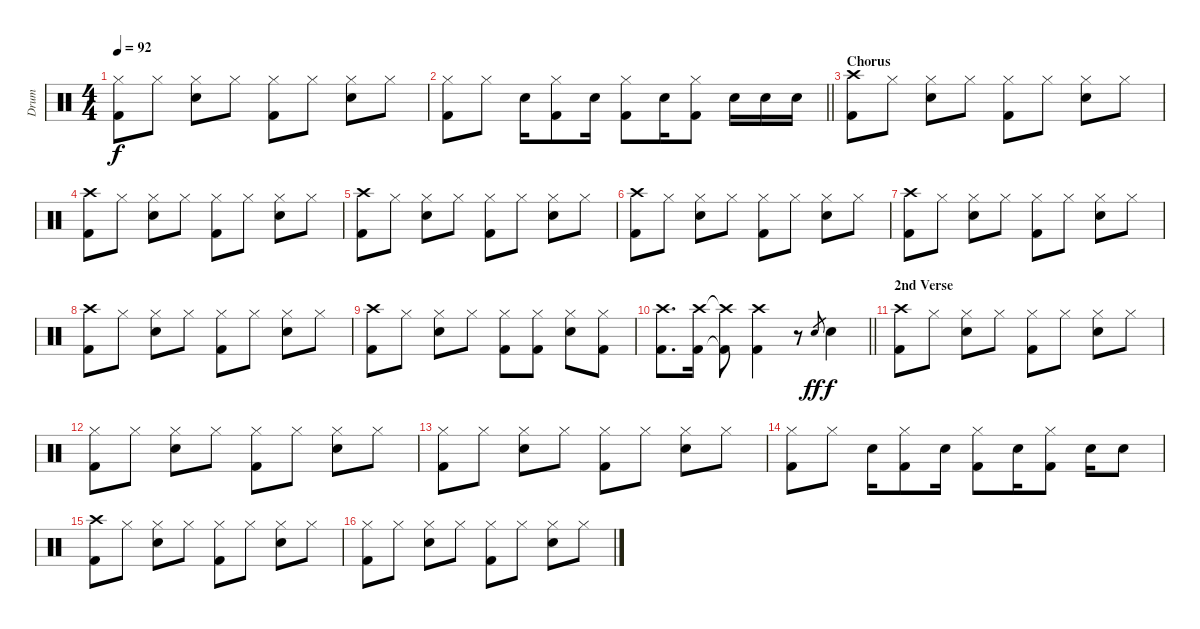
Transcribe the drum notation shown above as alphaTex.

\track ("Drum" "Drum") {instrument percussion}
\staff {score}
\articulation defaults
\ts (4 4)
\tempo 92
\clef neutral
\ks c
("Hi-Hat (closed)" "Kick (hit) 2").8{dy f} "Hi-Hat (closed)".8 ("Hi-Hat (closed)" "Snare (hit) 2").8 "Hi-Hat (closed)".8 ("Hi-Hat (closed)" "Kick (hit) 2").8 "Hi-Hat (closed)".8 ("Hi-Hat (closed)" "Snare (hit) 2").8 "Hi-Hat (closed)".8 |
\barLineRight lightlight
("Hi-Hat (closed)" "Kick (hit) 2").8 "Hi-Hat (closed)".8 "Snare (hit) 2".16 ("Hi-Hat (closed)" "Kick (hit) 2").8 "Snare (hit) 2".16 ("Hi-Hat (closed)" "Kick (hit) 2").8 "Snare (hit) 2".16 ("Hi-Hat (closed)" "Kick (hit) 2").8 "Snare (hit) 2".16 "Snare (hit) 2".16 "Snare (hit) 2".16 |
\section ("" "Chorus")
("Crash high (hit)" "Kick (hit) 2").8 "Hi-Hat (closed)".8 ("Hi-Hat (closed)" "Snare (hit) 2").8 "Hi-Hat (closed)".8 ("Hi-Hat (closed)" "Kick (hit) 2").8 "Hi-Hat (closed)".8 ("Hi-Hat (closed)" "Snare (hit) 2").8 "Hi-Hat (closed)".8 |
("Crash high (hit)" "Kick (hit) 2").8 "Hi-Hat (closed)".8 ("Hi-Hat (closed)" "Snare (hit) 2").8 "Hi-Hat (closed)".8 ("Hi-Hat (closed)" "Kick (hit) 2").8 "Hi-Hat (closed)".8 ("Hi-Hat (closed)" "Snare (hit) 2").8 "Hi-Hat (closed)".8 |
("Crash high (hit)" "Kick (hit) 2").8 "Hi-Hat (closed)".8 ("Hi-Hat (closed)" "Snare (hit) 2").8 "Hi-Hat (closed)".8 ("Hi-Hat (closed)" "Kick (hit) 2").8 "Hi-Hat (closed)".8 ("Hi-Hat (closed)" "Snare (hit) 2").8 "Hi-Hat (closed)".8 |
("Crash high (hit)" "Kick (hit) 2").8 "Hi-Hat (closed)".8 ("Hi-Hat (closed)" "Snare (hit) 2").8 "Hi-Hat (closed)".8 ("Hi-Hat (closed)" "Kick (hit) 2").8 "Hi-Hat (closed)".8 ("Hi-Hat (closed)" "Snare (hit) 2").8 "Hi-Hat (closed)".8 |
("Crash high (hit)" "Kick (hit) 2").8 "Hi-Hat (closed)".8 ("Hi-Hat (closed)" "Snare (hit) 2").8 "Hi-Hat (closed)".8 ("Hi-Hat (closed)" "Kick (hit) 2").8 "Hi-Hat (closed)".8 ("Hi-Hat (closed)" "Snare (hit) 2").8 "Hi-Hat (closed)".8 |
("Crash high (hit)" "Kick (hit) 2").8 "Hi-Hat (closed)".8 ("Hi-Hat (closed)" "Snare (hit) 2").8 "Hi-Hat (closed)".8 ("Hi-Hat (closed)" "Kick (hit) 2").8 "Hi-Hat (closed)".8 ("Hi-Hat (closed)" "Snare (hit) 2").8 "Hi-Hat (closed)".8 |
("Crash high (hit)" "Kick (hit) 2").8 "Hi-Hat (closed)".8 ("Hi-Hat (closed)" "Snare (hit) 2").8 "Hi-Hat (closed)".8 ("Hi-Hat (closed)" "Kick (hit) 2").8 ("Hi-Hat (closed)" "Kick (hit) 2").8 ("Hi-Hat (closed)" "Snare (hit) 2").8 ("Hi-Hat (closed)" "Kick (hit) 2").8 |
\barLineRight lightlight
("Crash high (hit)" "Kick (hit) 2").8{d} ("Crash high (hit)" "Kick (hit) 2").16 ("Crash high (hit)"{t} "Kick (hit) 2"{t}).8 ("Crash high (hit)" "Kick (hit) 2").4 r.8 "Snare (hit) 2".8{gr dy ff} "Snare (hit) 2".4{dy f} |
\section ("" "2nd Verse")
("Crash high (hit)" "Kick (hit) 2").8 "Hi-Hat (closed)".8 ("Hi-Hat (closed)" "Snare (hit) 2").8 "Hi-Hat (closed)".8 ("Hi-Hat (closed)" "Kick (hit) 2").8 "Hi-Hat (closed)".8 ("Hi-Hat (closed)" "Snare (hit) 2").8 "Hi-Hat (closed)".8 |
("Hi-Hat (closed)" "Kick (hit) 2").8 "Hi-Hat (closed)".8 ("Hi-Hat (closed)" "Snare (hit) 2").8 "Hi-Hat (closed)".8 ("Hi-Hat (closed)" "Kick (hit) 2").8 "Hi-Hat (closed)".8 ("Hi-Hat (closed)" "Snare (hit) 2").8 "Hi-Hat (closed)".8 |
("Hi-Hat (closed)" "Kick (hit) 2").8 "Hi-Hat (closed)".8 ("Hi-Hat (closed)" "Snare (hit) 2").8 "Hi-Hat (closed)".8 ("Hi-Hat (closed)" "Kick (hit) 2").8 "Hi-Hat (closed)".8 ("Hi-Hat (closed)" "Snare (hit) 2").8 "Hi-Hat (closed)".8 |
("Hi-Hat (closed)" "Kick (hit) 2").8 "Hi-Hat (closed)".8 "Snare (hit) 2".16 ("Hi-Hat (closed)" "Kick (hit) 2").8 "Snare (hit) 2".16 ("Hi-Hat (closed)" "Kick (hit) 2").8 "Snare (hit) 2".16 ("Hi-Hat (closed)" "Kick (hit) 2").8 "Snare (hit) 2".16 "Snare (hit) 2".8 |
("Crash high (hit)" "Kick (hit) 2").8 "Hi-Hat (closed)".8 ("Hi-Hat (closed)" "Snare (hit) 2").8 "Hi-Hat (closed)".8 ("Hi-Hat (closed)" "Kick (hit) 2").8 "Hi-Hat (closed)".8 ("Hi-Hat (closed)" "Snare (hit) 2").8 "Hi-Hat (closed)".8 |
("Hi-Hat (closed)" "Kick (hit) 2").8 "Hi-Hat (closed)".8 ("Hi-Hat (closed)" "Snare (hit) 2").8 "Hi-Hat (closed)".8 ("Hi-Hat (closed)" "Kick (hit) 2").8 "Hi-Hat (closed)".8 ("Hi-Hat (closed)" "Snare (hit) 2").8 "Hi-Hat (closed)".8
